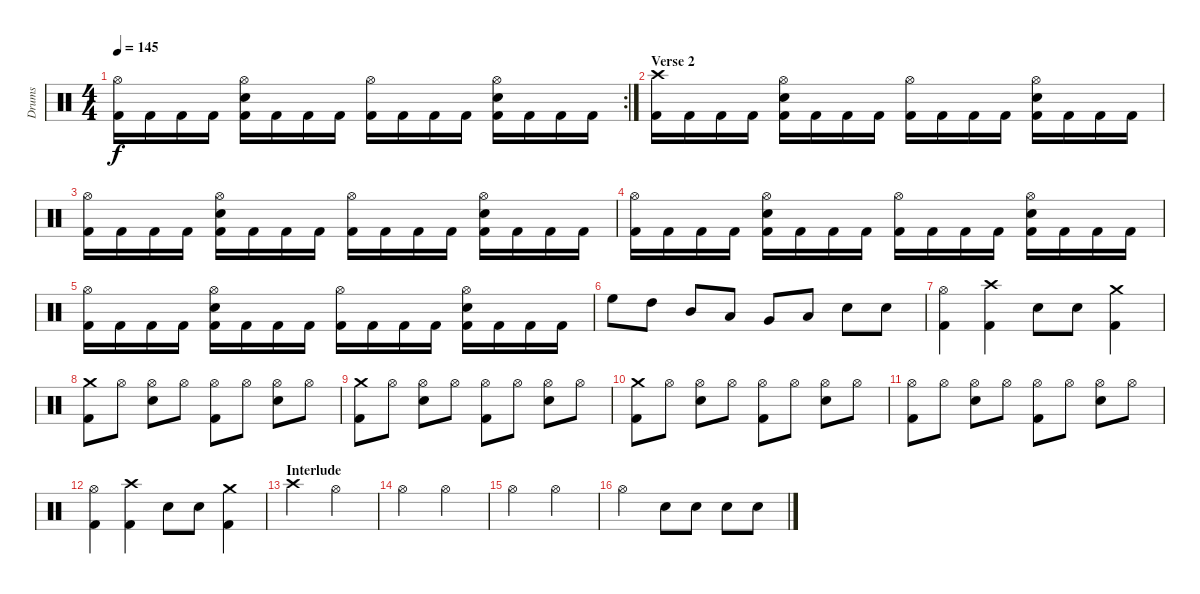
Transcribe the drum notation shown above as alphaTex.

\track ("Drums" "Drums") {instrument percussion}
\staff {score}
\articulation defaults
\rc 2
\ts (4 4)
\tempo 145
\clef neutral
\ks c
("Hi-Hat (open)" "Kick (hit) 2").16{dy f} "Kick (hit) 2".16 "Kick (hit) 2".16 "Kick (hit) 2".16 ("Hi-Hat (open)" "Electric Snare (hit)" "Kick (hit) 2").16 "Kick (hit) 2".16 "Kick (hit) 2".16 "Kick (hit) 2".16 ("Hi-Hat (open)" "Kick (hit) 2").16 "Kick (hit) 2".16 "Kick (hit) 2".16 "Kick (hit) 2".16 ("Hi-Hat (open)" "Electric Snare (hit)" "Kick (hit) 2").16 "Kick (hit) 2".16 "Kick (hit) 2".16 "Kick (hit) 2".16 |
\section ("" "Verse 2")
("Crash high (hit)" "Kick (hit) 2").16 "Kick (hit) 2".16 "Kick (hit) 2".16 "Kick (hit) 2".16 ("Hi-Hat (open)" "Electric Snare (hit)" "Kick (hit) 2").16 "Kick (hit) 2".16 "Kick (hit) 2".16 "Kick (hit) 2".16 ("Hi-Hat (open)" "Kick (hit) 2").16 "Kick (hit) 2".16 "Kick (hit) 2".16 "Kick (hit) 2".16 ("Hi-Hat (open)" "Electric Snare (hit)" "Kick (hit) 2").16 "Kick (hit) 2".16 "Kick (hit) 2".16 "Kick (hit) 2".16 |
("Hi-Hat (open)" "Kick (hit) 2").16 "Kick (hit) 2".16 "Kick (hit) 2".16 "Kick (hit) 2".16 ("Hi-Hat (open)" "Electric Snare (hit)" "Kick (hit) 2").16 "Kick (hit) 2".16 "Kick (hit) 2".16 "Kick (hit) 2".16 ("Hi-Hat (open)" "Kick (hit) 2").16 "Kick (hit) 2".16 "Kick (hit) 2".16 "Kick (hit) 2".16 ("Hi-Hat (open)" "Electric Snare (hit)" "Kick (hit) 2").16 "Kick (hit) 2".16 "Kick (hit) 2".16 "Kick (hit) 2".16 |
("Hi-Hat (open)" "Kick (hit) 2").16 "Kick (hit) 2".16 "Kick (hit) 2".16 "Kick (hit) 2".16 ("Hi-Hat (open)" "Electric Snare (hit)" "Kick (hit) 2").16 "Kick (hit) 2".16 "Kick (hit) 2".16 "Kick (hit) 2".16 ("Hi-Hat (open)" "Kick (hit) 2").16 "Kick (hit) 2".16 "Kick (hit) 2".16 "Kick (hit) 2".16 ("Hi-Hat (open)" "Electric Snare (hit)" "Kick (hit) 2").16 "Kick (hit) 2".16 "Kick (hit) 2".16 "Kick (hit) 2".16 |
("Hi-Hat (open)" "Kick (hit) 2").16 "Kick (hit) 2".16 "Kick (hit) 2".16 "Kick (hit) 2".16 ("Hi-Hat (open)" "Electric Snare (hit)" "Kick (hit) 2").16 "Kick (hit) 2".16 "Kick (hit) 2".16 "Kick (hit) 2".16 ("Hi-Hat (open)" "Kick (hit) 2").16 "Kick (hit) 2".16 "Kick (hit) 2".16 "Kick (hit) 2".16 ("Hi-Hat (open)" "Electric Snare (hit)" "Kick (hit) 2").16 "Kick (hit) 2".16 "Kick (hit) 2".16 "Kick (hit) 2".16 |
"High Floor Tom (hit)".8 "High Tom (hit)".8 "Mid Tom (hit)".8 "Low Tom (hit)".8 "Very Low Tom (hit)".8 "Low Floor Tom (hit)".8 "Electric Snare (hit)".8 "Electric Snare (hit)".8 |
("Hi-Hat (open)" "Kick (hit) 2").4 ("Crash high (hit)" "Kick (hit) 2").4 "Electric Snare (hit)".8 "Electric Snare (hit)".8 ("Crash medium (hit)" "Kick (hit) 2").4 |
("Crash medium (hit)" "Kick (hit) 2").8 "Hi-Hat (open)".8 ("Hi-Hat (open)" "Electric Snare (hit)").8 "Hi-Hat (open)".8 ("Hi-Hat (open)" "Kick (hit) 2").8 "Hi-Hat (open)".8 ("Hi-Hat (open)" "Electric Snare (hit)").8 "Hi-Hat (open)".8 |
("Crash medium (hit)" "Kick (hit) 2").8 "Hi-Hat (open)".8 ("Hi-Hat (open)" "Electric Snare (hit)").8 "Hi-Hat (open)".8 ("Hi-Hat (open)" "Kick (hit) 2").8 "Hi-Hat (open)".8 ("Hi-Hat (open)" "Electric Snare (hit)").8 "Hi-Hat (open)".8 |
("Crash medium (hit)" "Kick (hit) 2").8 "Hi-Hat (open)".8 ("Hi-Hat (open)" "Electric Snare (hit)").8 "Hi-Hat (open)".8 ("Hi-Hat (open)" "Kick (hit) 2").8 "Hi-Hat (open)".8 ("Hi-Hat (open)" "Electric Snare (hit)").8 "Hi-Hat (open)".8 |
("Hi-Hat (open)" "Kick (hit) 2").8 "Hi-Hat (open)".8 ("Hi-Hat (open)" "Electric Snare (hit)").8 "Hi-Hat (open)".8 ("Hi-Hat (open)" "Kick (hit) 2").8 "Hi-Hat (open)".8 ("Hi-Hat (open)" "Electric Snare (hit)").8 "Hi-Hat (open)".8 |
("Hi-Hat (open)" "Kick (hit) 2").4 ("Crash high (hit)" "Kick (hit) 2").4 "Electric Snare (hit)".8 "Electric Snare (hit)".8 ("Crash medium (hit)" "Kick (hit) 2").4 |
\section ("" "Interlude")
"Crash high (hit)".2 "Hi-Hat (open)".2 |
"Hi-Hat (open)".2 "Hi-Hat (open)".2 |
"Hi-Hat (open)".2 "Hi-Hat (open)".2 |
"Hi-Hat (open)".2 "Electric Snare (hit)".8 "Electric Snare (hit)".8 "Electric Snare (hit)".8 "Electric Snare (hit)".8
